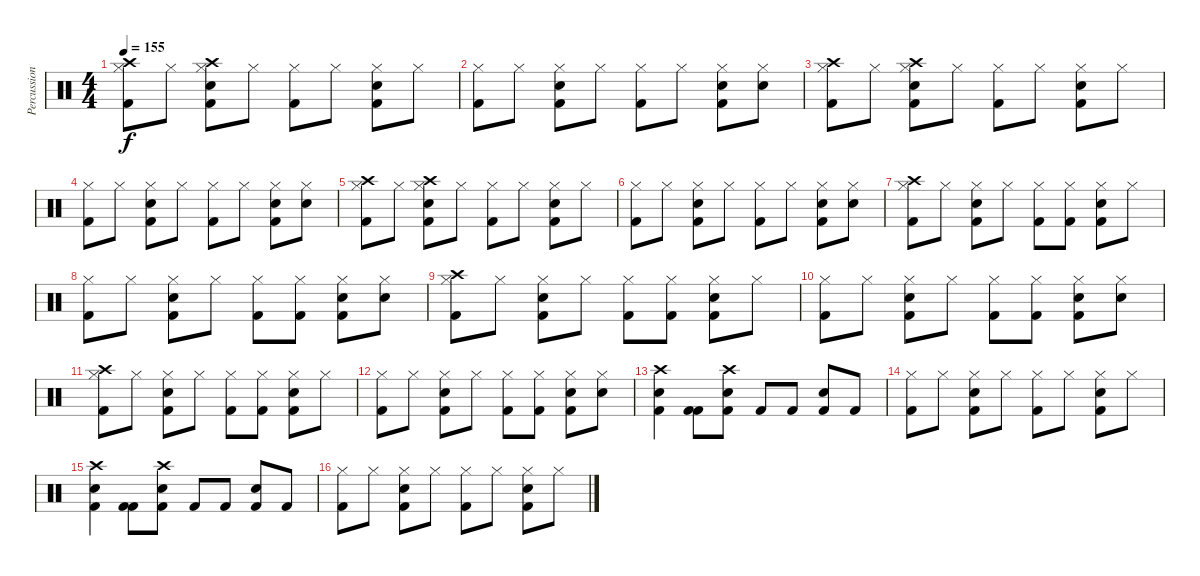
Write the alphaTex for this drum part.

\track ("Percussion" "Percussion") {instrument percussion}
\staff {score}
\articulation defaults
\ts (4 4)
\tempo 155
\clef neutral
\ks c
("Crash high (hit)" "Kick (hit) 2" "Hi-Hat (closed)").8{dy f} "Hi-Hat (closed)".8 ("Crash high (hit)" "Snare (hit) 2" "Kick (hit) 2" "Hi-Hat (closed)").8 "Hi-Hat (closed)".8 ("Kick (hit) 2" "Hi-Hat (closed)").8 "Hi-Hat (closed)".8 ("Snare (hit) 2" "Kick (hit) 2" "Hi-Hat (closed)").8 "Hi-Hat (closed)".8 |
("Kick (hit) 2" "Hi-Hat (closed)").8 "Hi-Hat (closed)".8 ("Snare (hit) 2" "Kick (hit) 2" "Hi-Hat (closed)").8 "Hi-Hat (closed)".8 ("Kick (hit) 2" "Hi-Hat (closed)").8 "Hi-Hat (closed)".8 ("Snare (hit) 2" "Kick (hit) 2" "Hi-Hat (closed)").8 ("Snare (hit) 2" "Hi-Hat (closed)").8 |
("Crash high (hit)" "Kick (hit) 2" "Hi-Hat (closed)").8 "Hi-Hat (closed)".8 ("Crash high (hit)" "Snare (hit) 2" "Kick (hit) 2" "Hi-Hat (closed)").8 "Hi-Hat (closed)".8 ("Kick (hit) 2" "Hi-Hat (closed)").8 "Hi-Hat (closed)".8 ("Snare (hit) 2" "Kick (hit) 2" "Hi-Hat (closed)").8 "Hi-Hat (closed)".8 |
("Kick (hit) 2" "Hi-Hat (closed)").8 "Hi-Hat (closed)".8 ("Snare (hit) 2" "Kick (hit) 2" "Hi-Hat (closed)").8 "Hi-Hat (closed)".8 ("Kick (hit) 2" "Hi-Hat (closed)").8 "Hi-Hat (closed)".8 ("Snare (hit) 2" "Kick (hit) 2" "Hi-Hat (closed)").8 ("Snare (hit) 2" "Hi-Hat (closed)").8 |
("Crash high (hit)" "Kick (hit) 2" "Hi-Hat (closed)").8 "Hi-Hat (closed)".8 ("Crash high (hit)" "Snare (hit) 2" "Kick (hit) 2" "Hi-Hat (closed)").8 "Hi-Hat (closed)".8 ("Kick (hit) 2" "Hi-Hat (closed)").8 "Hi-Hat (closed)".8 ("Snare (hit) 2" "Kick (hit) 2" "Hi-Hat (closed)").8 "Hi-Hat (closed)".8 |
("Kick (hit) 2" "Hi-Hat (closed)").8 "Hi-Hat (closed)".8 ("Snare (hit) 2" "Kick (hit) 2" "Hi-Hat (closed)").8 "Hi-Hat (closed)".8 ("Kick (hit) 2" "Hi-Hat (closed)").8 "Hi-Hat (closed)".8 ("Snare (hit) 2" "Kick (hit) 2" "Hi-Hat (closed)").8 ("Snare (hit) 2" "Hi-Hat (closed)").8 |
("Crash high (hit)" "Kick (hit) 2" "Hi-Hat (closed)").8 "Hi-Hat (closed)".8 ("Kick (hit) 2" "Snare (hit) 2" "Hi-Hat (closed)").8 "Hi-Hat (closed)".8 ("Kick (hit) 2" "Hi-Hat (closed)").8 ("Kick (hit) 2" "Hi-Hat (closed)").8 ("Kick (hit) 2" "Snare (hit) 2" "Hi-Hat (closed)").8 "Hi-Hat (closed)".8 |
("Kick (hit) 2" "Hi-Hat (closed)").8 "Hi-Hat (closed)".8 ("Kick (hit) 2" "Snare (hit) 2" "Hi-Hat (closed)").8 "Hi-Hat (closed)".8 ("Kick (hit) 2" "Hi-Hat (closed)").8 ("Kick (hit) 2" "Hi-Hat (closed)").8 ("Kick (hit) 2" "Snare (hit) 2" "Hi-Hat (closed)").8 ("Snare (hit) 2" "Hi-Hat (closed)").8 |
("Crash high (hit)" "Kick (hit) 2" "Hi-Hat (closed)").8 "Hi-Hat (closed)".8 ("Kick (hit) 2" "Snare (hit) 2" "Hi-Hat (closed)").8 "Hi-Hat (closed)".8 ("Kick (hit) 2" "Hi-Hat (closed)").8 ("Kick (hit) 2" "Hi-Hat (closed)").8 ("Kick (hit) 2" "Snare (hit) 2" "Hi-Hat (closed)").8 "Hi-Hat (closed)".8 |
("Kick (hit) 2" "Hi-Hat (closed)").8 "Hi-Hat (closed)".8 ("Kick (hit) 2" "Snare (hit) 2" "Hi-Hat (closed)").8 "Hi-Hat (closed)".8 ("Kick (hit) 2" "Hi-Hat (closed)").8 ("Kick (hit) 2" "Hi-Hat (closed)").8 ("Kick (hit) 2" "Snare (hit) 2" "Hi-Hat (closed)").8 ("Snare (hit) 2" "Hi-Hat (closed)").8 |
("Crash high (hit)" "Kick (hit) 2" "Hi-Hat (closed)").8 "Hi-Hat (closed)".8 ("Kick (hit) 2" "Snare (hit) 2" "Hi-Hat (closed)").8 "Hi-Hat (closed)".8 ("Kick (hit) 2" "Hi-Hat (closed)").8 ("Kick (hit) 2" "Hi-Hat (closed)").8 ("Kick (hit) 2" "Snare (hit) 2" "Hi-Hat (closed)").8 "Hi-Hat (closed)".8 |
("Kick (hit) 2" "Hi-Hat (closed)").8 "Hi-Hat (closed)".8 ("Kick (hit) 2" "Snare (hit) 2" "Hi-Hat (closed)").8 "Hi-Hat (closed)".8 ("Kick (hit) 2" "Hi-Hat (closed)").8 ("Kick (hit) 2" "Hi-Hat (closed)").8 ("Kick (hit) 2" "Snare (hit) 2" "Hi-Hat (closed)").8 ("Snare (hit) 2" "Hi-Hat (closed)").8 |
("Crash high (hit)" "Snare (hit) 2" "Kick (hit) 2").4 ("Kick (hit) 2" "Kick (hit) 2").8 ("Crash high (hit)" "Snare (hit) 2" "Kick (hit) 2").8 "Kick (hit) 2".8 "Kick (hit) 2".8 ("Snare (hit) 2" "Kick (hit) 2").8 "Kick (hit) 2".8 |
("Kick (hit) 2" "Hi-Hat (closed)").8 "Hi-Hat (closed)".8 ("Snare (hit) 2" "Kick (hit) 2" "Hi-Hat (closed)").8 "Hi-Hat (closed)".8 ("Kick (hit) 2" "Hi-Hat (closed)").8 "Hi-Hat (closed)".8 ("Snare (hit) 2" "Kick (hit) 2" "Hi-Hat (closed)").8 "Hi-Hat (closed)".8 |
("Crash high (hit)" "Snare (hit) 2" "Kick (hit) 2").4 ("Kick (hit) 2" "Kick (hit) 2").8 ("Crash high (hit)" "Snare (hit) 2" "Kick (hit) 2").8 "Kick (hit) 2".8 "Kick (hit) 2".8 ("Snare (hit) 2" "Kick (hit) 2").8 "Kick (hit) 2".8 |
("Kick (hit) 2" "Hi-Hat (closed)").8 "Hi-Hat (closed)".8 ("Snare (hit) 2" "Kick (hit) 2" "Hi-Hat (closed)").8 "Hi-Hat (closed)".8 ("Kick (hit) 2" "Hi-Hat (closed)").8 "Hi-Hat (closed)".8 ("Snare (hit) 2" "Kick (hit) 2" "Hi-Hat (closed)").8 "Hi-Hat (closed)".8
